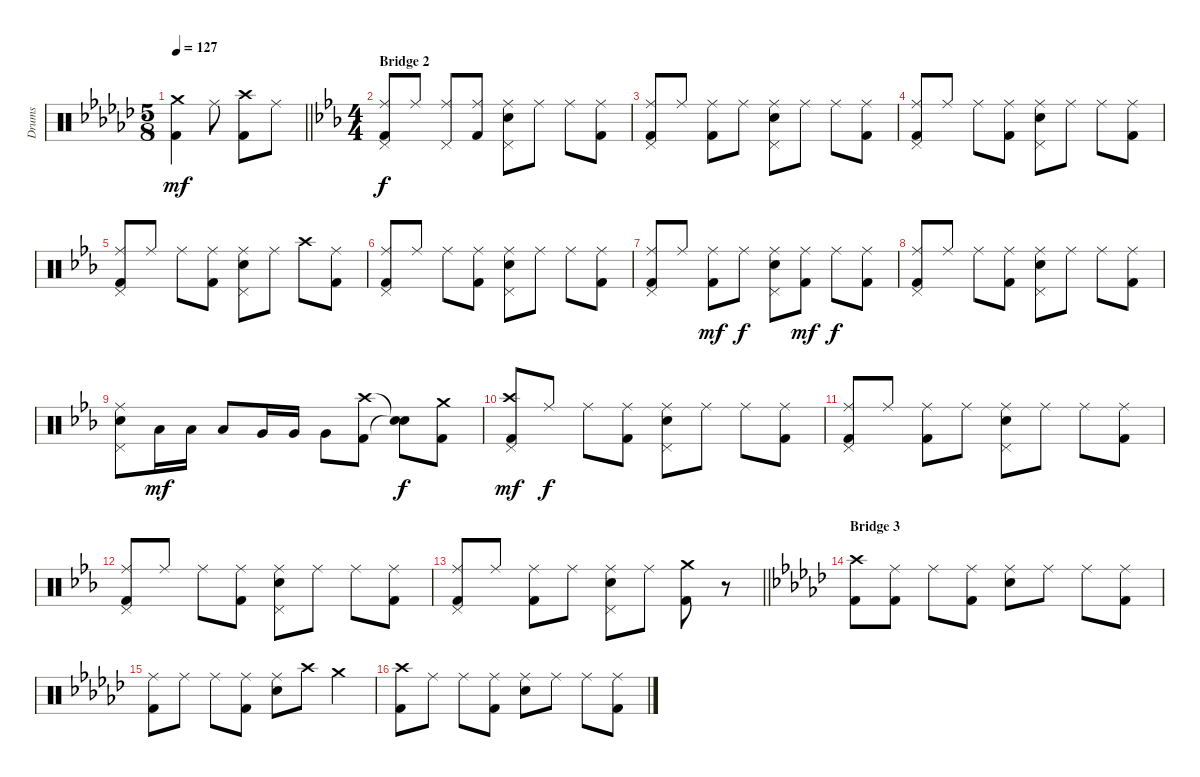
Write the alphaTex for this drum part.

\track ("Drums" "Drums") {instrument percussion}
\staff {score}
\articulation defaults
\ts (5 8)
\tempo 127
\clef neutral
\barLineRight lightlight
\ks ebminor
("Crash medium (hit)" "Kick (hit) 2").4{dy mf} "Ride (middle)".8 ("Crash high (hit)" "Kick (hit) 2").8 "Ride (middle)".8 |
\ts (4 4)
\section ("" "Bridge 2")
\ks eb
("Ride (middle)" "Pedal Hi-Hat (hit)" "Kick (hit) 2").8{dy f} "Ride (middle)".8 ("Ride (middle)" "Pedal Hi-Hat (hit)").8 ("Ride (middle)" "Kick (hit) 2").8 ("Ride (middle)" "Pedal Hi-Hat (hit)" "Electric Snare (hit)").8 "Ride (middle)".8 "Ride (middle)".8 ("Ride (middle)" "Kick (hit) 2").8 |
("Ride (middle)" "Pedal Hi-Hat (hit)" "Kick (hit) 2").8 "Ride (middle)".8 ("Ride (middle)" "Kick (hit) 2").8 "Ride (middle)".8 ("Ride (middle)" "Pedal Hi-Hat (hit)" "Electric Snare (hit)").8 "Ride (middle)".8 "Ride (middle)".8 ("Ride (middle)" "Kick (hit) 2").8 |
("Ride (middle)" "Pedal Hi-Hat (hit)" "Kick (hit) 2").8 "Ride (middle)".8 "Ride (middle)".8 ("Ride (middle)" "Kick (hit) 2").8 ("Ride (middle)" "Pedal Hi-Hat (hit)" "Electric Snare (hit)").8 "Ride (middle)".8 "Ride (middle)".8 ("Ride (middle)" "Kick (hit) 2").8 |
("Ride (middle)" "Pedal Hi-Hat (hit)" "Kick (hit) 2").8 "Ride (middle)".8 "Ride (middle)".8 ("Ride (middle)" "Kick (hit) 2").8 ("Ride (middle)" "Pedal Hi-Hat (hit)" "Electric Snare (hit)").8 "Ride (middle)".8 "Crash high (hit)".8 ("Ride (middle)" "Kick (hit) 2").8 |
("Ride (middle)" "Pedal Hi-Hat (hit)" "Kick (hit) 2").8 "Ride (middle)".8 "Ride (middle)".8 ("Ride (middle)" "Kick (hit) 2").8 ("Ride (middle)" "Pedal Hi-Hat (hit)" "Electric Snare (hit)").8 "Ride (middle)".8 "Ride (middle)".8 ("Ride (middle)" "Kick (hit) 2").8 |
("Ride (middle)" "Pedal Hi-Hat (hit)" "Kick (hit) 2").8 "Ride (middle)".8 ("Ride (middle)" "Kick (hit) 2").8{dy mf} "Ride (middle)".8{dy f} ("Ride (middle)" "Pedal Hi-Hat (hit)" "Electric Snare (hit)").8 ("Ride (middle)" "Kick (hit) 2").8{dy mf} "Ride (middle)".8{dy f} ("Ride (middle)" "Kick (hit) 2").8 |
("Ride (middle)" "Pedal Hi-Hat (hit)" "Kick (hit) 2").8 "Ride (middle)".8 "Ride (middle)".8 ("Ride (middle)" "Kick (hit) 2").8 ("Ride (middle)" "Pedal Hi-Hat (hit)" "Electric Snare (hit)").8 "Ride (middle)".8 "Ride (middle)".8 ("Ride (middle)" "Kick (hit) 2").8 |
("Ride (middle)" "Pedal Hi-Hat (hit)" "Electric Snare (hit)").8 "Low Tom (hit)".16{dy mf} "Low Tom (hit)".16 "Low Tom (hit)".8 "Very Low Tom (hit)".16 "Very Low Tom (hit)".16 "Very Low Tom (hit)".8 ("Crash high (hit)" "Kick (hit) 2").8 ("Snare (hit)"{t} "Snare (hit)"{t}).8{dy f} ("Crash medium (hit)" "Kick (hit) 2").8 |
("Crash high (hit)" "Pedal Hi-Hat (hit)" "Kick (hit) 2").8{dy mf} "Ride (middle)".8{dy f} "Ride (middle)".8 ("Ride (middle)" "Kick (hit) 2").8 ("Ride (middle)" "Pedal Hi-Hat (hit)" "Electric Snare (hit)").8 "Ride (middle)".8 "Ride (middle)".8 ("Ride (middle)" "Kick (hit) 2").8 |
("Ride (middle)" "Pedal Hi-Hat (hit)" "Kick (hit) 2").8 "Ride (middle)".8 ("Ride (middle)" "Kick (hit) 2").8 "Ride (middle)".8 ("Ride (middle)" "Pedal Hi-Hat (hit)" "Electric Snare (hit)").8 "Ride (middle)".8 "Ride (middle)".8 ("Ride (middle)" "Kick (hit) 2").8 |
("Ride (middle)" "Pedal Hi-Hat (hit)" "Kick (hit) 2").8 "Ride (middle)".8 "Ride (middle)".8 ("Ride (middle)" "Kick (hit) 2").8 ("Ride (middle)" "Pedal Hi-Hat (hit)" "Electric Snare (hit)").8 "Ride (middle)".8 "Ride (middle)".8 ("Ride (middle)" "Kick (hit) 2").8 |
\barLineRight lightlight
("Ride (middle)" "Pedal Hi-Hat (hit)" "Kick (hit) 2").8 "Ride (middle)".8 ("Ride (middle)" "Kick (hit) 2").8 "Ride (middle)".8 ("Ride (middle)" "Pedal Hi-Hat (hit)" "Electric Snare (hit)").8 "Ride (middle)".8 ("Crash medium (hit)" "Kick (hit) 2").8 r.8 |
\section ("" "Bridge 3")
\ks ebminor
("Crash high (hit)" "Kick (hit) 2").8 ("Ride (middle)" "Kick (hit) 2").8 "Ride (middle)".8 ("Ride (middle)" "Kick (hit) 2").8 ("Ride (middle)" "Electric Snare (hit)").8 "Ride (middle)".8 "Ride (middle)".8 ("Ride (middle)" "Kick (hit) 2").8 |
("Ride (middle)" "Kick (hit) 2").8 "Ride (middle)".8 "Ride (middle)".8 ("Ride (middle)" "Kick (hit) 2").8 ("Ride (middle)" "Electric Snare (hit)").8 "Crash high (hit)".8 "Crash medium (hit)".4 |
("Crash high (hit)" "Kick (hit) 2").8 "Ride (middle)".8 "Ride (middle)".8 ("Ride (middle)" "Kick (hit) 2").8 ("Ride (middle)" "Electric Snare (hit)").8 "Ride (middle)".8 "Ride (middle)".8 ("Ride (middle)" "Kick (hit) 2").8
